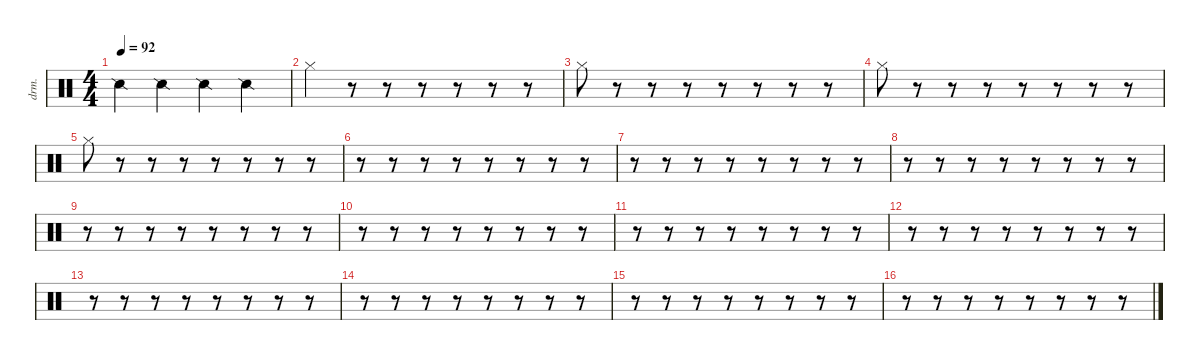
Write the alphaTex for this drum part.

\defaultSystemsLayout 4
\hideDynamics
\bracketExtendMode nobrackets
\otherSystemsTrackNameOrientation horizontal
\track ("drums" "drm.") {instrument percussion}
\staff {score}
\articulation defaults
\ts (4 4)
\beaming (8 2 2 2 2)
\tempo 92
\clef neutral
\ks c "Snare (side stick) 2".4{dy f beam Down} "Snare (side stick) 2".4{beam Down} "Snare (side stick) 2".4{beam Down} "Snare (side stick) 2".4{beam Down}
|
"Hi-Hat (closed)".4{beam Down} r.8{beam Down} r.8{beam Down} r.8{beam Down} r.8{beam Down} r.8{beam Down} r.8{beam Down} |
"Hi-Hat (closed)".8{beam Down} r.8{beam Down} r.8{beam Down} r.8{beam Down} r.8{beam Down} r.8{beam Down} r.8{beam Down} r.8{beam Down} |
"Hi-Hat (closed)".8{beam Down} r.8{beam Down} r.8{beam Down} r.8{beam Down} r.8{beam Down} r.8{beam Down} r.8{beam Down} r.8{beam Down} |
"Hi-Hat (closed)".8{beam Down} r.8{beam Down} r.8{beam Down} r.8{beam Down} r.8{beam Down} r.8{beam Down} r.8{beam Down} r.8{beam Down} |
r.8{beam Down} r.8{beam Down} r.8{beam Down} r.8{beam Down} r.8{beam Down} r.8{beam Down} r.8{beam Down} r.8{beam Down} |
r.8{beam Down} r.8{beam Down} r.8{beam Down} r.8{beam Down} r.8{beam Down} r.8{beam Down} r.8{beam Down} r.8{beam Down} |
r.8{beam Down} r.8{beam Down} r.8{beam Down} r.8{beam Down} r.8{beam Down} r.8{beam Down} r.8{beam Down} r.8{beam Down} |
r.8{beam Down} r.8{beam Down} r.8{beam Down} r.8{beam Down} r.8{beam Down} r.8{beam Down} r.8{beam Down} r.8{beam Down} |
r.8{beam Down} r.8{beam Down} r.8{beam Down} r.8{beam Down} r.8{beam Down} r.8{beam Down} r.8{beam Down} r.8{beam Down} |
r.8{beam Down} r.8{beam Down} r.8{beam Down} r.8{beam Down} r.8{beam Down} r.8{beam Down} r.8{beam Down} r.8{beam Down} |
r.8{beam Down} r.8{beam Down} r.8{beam Down} r.8{beam Down} r.8{beam Down} r.8{beam Down} r.8{beam Down} r.8{beam Down} |
r.8{beam Down} r.8{beam Down} r.8{beam Down} r.8{beam Down} r.8{beam Down} r.8{beam Down} r.8{beam Down} r.8{beam Down} |
r.8{beam Down} r.8{beam Down} r.8{beam Down} r.8{beam Down} r.8{beam Down} r.8{beam Down} r.8{beam Down} r.8{beam Down} |
r.8{beam Down} r.8{beam Down} r.8{beam Down} r.8{beam Down} r.8{beam Down} r.8{beam Down} r.8{beam Down} r.8{beam Down} |
r.8{beam Down} r.8{beam Down} r.8{beam Down} r.8{beam Down} r.8{beam Down} r.8{beam Down} r.8{beam Down} r.8{beam Down}
